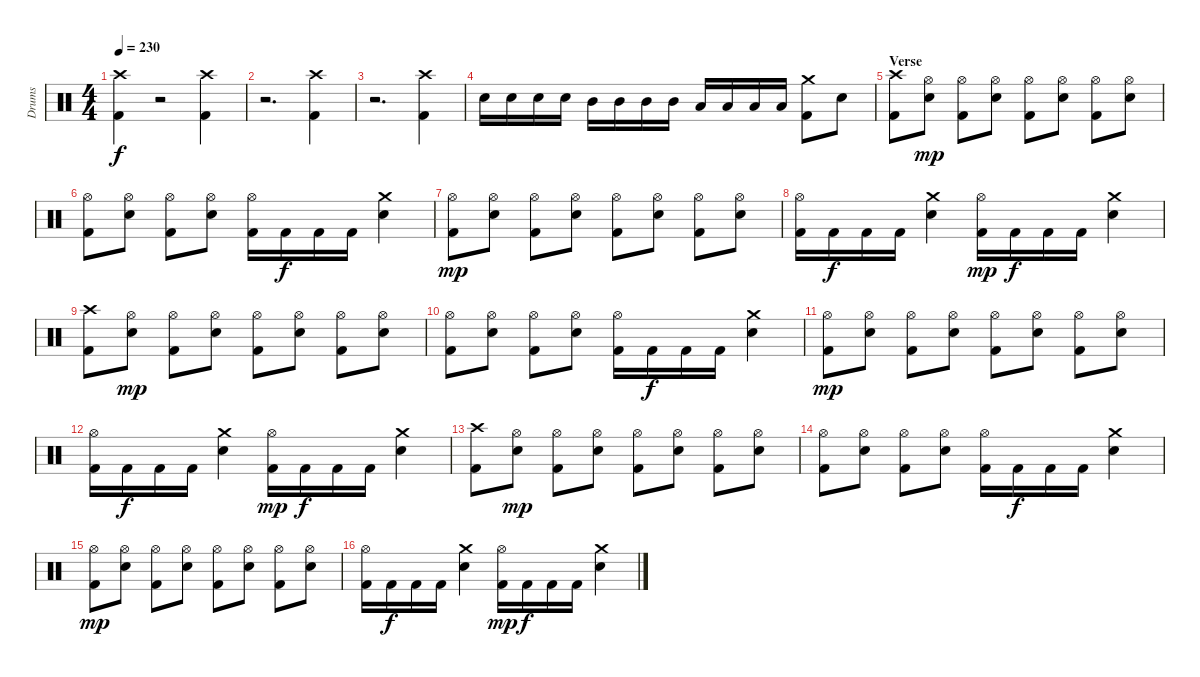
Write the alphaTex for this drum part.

\track ("Drums" "Drums") {instrument percussion}
\staff {score}
\articulation defaults
\ts (4 4)
\tempo 230
\clef neutral
\ks c
("Crash high (hit)" "Kick (hit) 2").4{dy f} r.2 ("Crash high (hit)" "Kick (hit) 2").4 |
r.2{d} ("Crash high (hit)" "Kick (hit) 2").4 |
r.2{d} ("Crash high (hit)" "Kick (hit) 2").4 |
"Snare (hit) 2".16 "Snare (hit) 2".16 "Snare (hit) 2".16 "Snare (hit) 2".16 "Mid Tom (hit)".16 "Mid Tom (hit)".16 "Mid Tom (hit)".16 "Mid Tom (hit)".16 "Low Tom (hit)".16 "Low Tom (hit)".16 "Low Tom (hit)".16 "Low Tom (hit)".16 ("Crash medium (hit)" "Kick (hit) 2").8 "Snare (hit) 2".8 |
\section ("" "Verse")
("Crash high (hit)" "Kick (hit) 2").8 ("Hi-Hat (open)" "Snare (hit) 2").8{dy mp} ("Hi-Hat (open)" "Kick (hit) 2").8 ("Hi-Hat (open)" "Snare (hit) 2").8 ("Hi-Hat (open)" "Kick (hit) 2").8 ("Hi-Hat (open)" "Snare (hit) 2").8 ("Hi-Hat (open)" "Kick (hit) 2").8 ("Hi-Hat (open)" "Snare (hit) 2").8 |
("Hi-Hat (open)" "Kick (hit) 2").8 ("Hi-Hat (open)" "Snare (hit) 2").8 ("Hi-Hat (open)" "Kick (hit) 2").8 ("Hi-Hat (open)" "Snare (hit) 2").8 ("Hi-Hat (open)" "Kick (hit) 2").16 "Kick (hit) 2".16{dy f} "Kick (hit) 2".16 "Kick (hit) 2".16 ("Crash medium (hit)" "Snare (hit) 2").4 |
("Hi-Hat (open)" "Kick (hit) 2").8{dy mp} ("Hi-Hat (open)" "Snare (hit) 2").8 ("Hi-Hat (open)" "Kick (hit) 2").8 ("Hi-Hat (open)" "Snare (hit) 2").8 ("Hi-Hat (open)" "Kick (hit) 2").8 ("Hi-Hat (open)" "Snare (hit) 2").8 ("Hi-Hat (open)" "Kick (hit) 2").8 ("Hi-Hat (open)" "Snare (hit) 2").8 |
("Hi-Hat (open)" "Kick (hit) 2").16 "Kick (hit) 2".16{dy f} "Kick (hit) 2".16 "Kick (hit) 2".16 ("Crash medium (hit)" "Snare (hit) 2").4 ("Hi-Hat (open)" "Kick (hit) 2").16{dy mp} "Kick (hit) 2".16{dy f} "Kick (hit) 2".16 "Kick (hit) 2".16 ("Crash medium (hit)" "Snare (hit) 2").4 |
("Crash high (hit)" "Kick (hit) 2").8 ("Hi-Hat (open)" "Snare (hit) 2").8{dy mp} ("Hi-Hat (open)" "Kick (hit) 2").8 ("Hi-Hat (open)" "Snare (hit) 2").8 ("Hi-Hat (open)" "Kick (hit) 2").8 ("Hi-Hat (open)" "Snare (hit) 2").8 ("Hi-Hat (open)" "Kick (hit) 2").8 ("Hi-Hat (open)" "Snare (hit) 2").8 |
("Hi-Hat (open)" "Kick (hit) 2").8 ("Hi-Hat (open)" "Snare (hit) 2").8 ("Hi-Hat (open)" "Kick (hit) 2").8 ("Hi-Hat (open)" "Snare (hit) 2").8 ("Hi-Hat (open)" "Kick (hit) 2").16 "Kick (hit) 2".16{dy f} "Kick (hit) 2".16 "Kick (hit) 2".16 ("Crash medium (hit)" "Snare (hit) 2").4 |
("Hi-Hat (open)" "Kick (hit) 2").8{dy mp} ("Hi-Hat (open)" "Snare (hit) 2").8 ("Hi-Hat (open)" "Kick (hit) 2").8 ("Hi-Hat (open)" "Snare (hit) 2").8 ("Hi-Hat (open)" "Kick (hit) 2").8 ("Hi-Hat (open)" "Snare (hit) 2").8 ("Hi-Hat (open)" "Kick (hit) 2").8 ("Hi-Hat (open)" "Snare (hit) 2").8 |
("Hi-Hat (open)" "Kick (hit) 2").16 "Kick (hit) 2".16{dy f} "Kick (hit) 2".16 "Kick (hit) 2".16 ("Crash medium (hit)" "Snare (hit) 2").4 ("Hi-Hat (open)" "Kick (hit) 2").16{dy mp} "Kick (hit) 2".16{dy f} "Kick (hit) 2".16 "Kick (hit) 2".16 ("Crash medium (hit)" "Snare (hit) 2").4 |
("Crash high (hit)" "Kick (hit) 2").8 ("Hi-Hat (open)" "Snare (hit) 2").8{dy mp} ("Hi-Hat (open)" "Kick (hit) 2").8 ("Hi-Hat (open)" "Snare (hit) 2").8 ("Hi-Hat (open)" "Kick (hit) 2").8 ("Hi-Hat (open)" "Snare (hit) 2").8 ("Hi-Hat (open)" "Kick (hit) 2").8 ("Hi-Hat (open)" "Snare (hit) 2").8 |
("Hi-Hat (open)" "Kick (hit) 2").8 ("Hi-Hat (open)" "Snare (hit) 2").8 ("Hi-Hat (open)" "Kick (hit) 2").8 ("Hi-Hat (open)" "Snare (hit) 2").8 ("Hi-Hat (open)" "Kick (hit) 2").16 "Kick (hit) 2".16{dy f} "Kick (hit) 2".16 "Kick (hit) 2".16 ("Crash medium (hit)" "Snare (hit) 2").4 |
("Hi-Hat (open)" "Kick (hit) 2").8{dy mp} ("Hi-Hat (open)" "Snare (hit) 2").8 ("Hi-Hat (open)" "Kick (hit) 2").8 ("Hi-Hat (open)" "Snare (hit) 2").8 ("Hi-Hat (open)" "Kick (hit) 2").8 ("Hi-Hat (open)" "Snare (hit) 2").8 ("Hi-Hat (open)" "Kick (hit) 2").8 ("Hi-Hat (open)" "Snare (hit) 2").8 |
("Hi-Hat (open)" "Kick (hit) 2").16 "Kick (hit) 2".16{dy f} "Kick (hit) 2".16 "Kick (hit) 2".16 ("Crash medium (hit)" "Snare (hit) 2").4 ("Hi-Hat (open)" "Kick (hit) 2").16{dy mp} "Kick (hit) 2".16{dy f} "Kick (hit) 2".16 "Kick (hit) 2".16 ("Crash medium (hit)" "Snare (hit) 2").4
